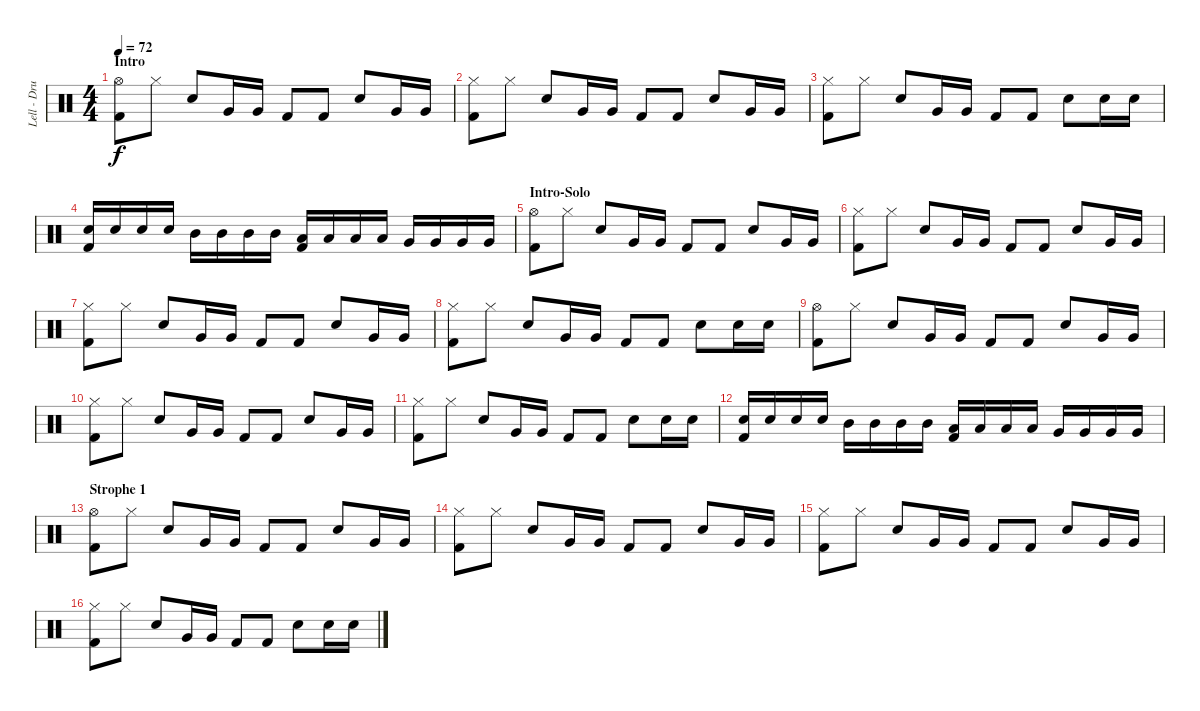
\track ("Lell - Drums" "Lell - Dru") {instrument percussion}
\staff {score}
\articulation defaults
\ts (4 4)
\section ("" "Intro")
\tempo 72
\clef neutral
\ks c
("Hi-Hat (open)" "Kick (hit) 2").8{dy f} "Hi-Hat (closed)".8 "Snare (hit) 2".8 "Very Low Tom (hit)".16 "Very Low Tom (hit)".16 "Kick (hit) 2".8 "Kick (hit) 2".8 "Snare (hit) 2".8 "Very Low Tom (hit)".16 "Very Low Tom (hit)".16 |
("Hi-Hat (closed)" "Kick (hit) 2").8 "Hi-Hat (closed)".8 "Snare (hit) 2".8 "Very Low Tom (hit)".16 "Very Low Tom (hit)".16 "Kick (hit) 2".8 "Kick (hit) 2".8 "Snare (hit) 2".8 "Very Low Tom (hit)".16 "Very Low Tom (hit)".16 |
("Hi-Hat (closed)" "Kick (hit) 2").8 "Hi-Hat (closed)".8 "Snare (hit) 2".8 "Very Low Tom (hit)".16 "Very Low Tom (hit)".16 "Kick (hit) 2".8 "Kick (hit) 2".8 "Snare (hit) 2".8 "Snare (hit) 2".16 "Snare (hit) 2".16 |
("Snare (hit) 2" "Kick (hit) 2").16 "Snare (hit) 2".16 "Snare (hit) 2".16 "Snare (hit) 2".16 "Mid Tom (hit)".16 "Mid Tom (hit)".16 "Mid Tom (hit)".16 "Mid Tom (hit)".16 ("Low Tom (hit)" "Kick (hit) 2").16 "Low Tom (hit)".16 "Low Tom (hit)".16 "Low Tom (hit)".16 "Very Low Tom (hit)".16 "Very Low Tom (hit)".16 "Very Low Tom (hit)".16 "Very Low Tom (hit)".16 |
\section ("" "Intro-Solo")
("Hi-Hat (open)" "Kick (hit) 2").8 "Hi-Hat (closed)".8 "Snare (hit) 2".8 "Very Low Tom (hit)".16 "Very Low Tom (hit)".16 "Kick (hit) 2".8 "Kick (hit) 2".8 "Snare (hit) 2".8 "Very Low Tom (hit)".16 "Very Low Tom (hit)".16 |
("Hi-Hat (closed)" "Kick (hit) 2").8 "Hi-Hat (closed)".8 "Snare (hit) 2".8 "Very Low Tom (hit)".16 "Very Low Tom (hit)".16 "Kick (hit) 2".8 "Kick (hit) 2".8 "Snare (hit) 2".8 "Very Low Tom (hit)".16 "Very Low Tom (hit)".16 |
("Hi-Hat (closed)" "Kick (hit) 2").8 "Hi-Hat (closed)".8 "Snare (hit) 2".8 "Very Low Tom (hit)".16 "Very Low Tom (hit)".16 "Kick (hit) 2".8 "Kick (hit) 2".8 "Snare (hit) 2".8 "Very Low Tom (hit)".16 "Very Low Tom (hit)".16 |
("Hi-Hat (closed)" "Kick (hit) 2").8 "Hi-Hat (closed)".8 "Snare (hit) 2".8 "Very Low Tom (hit)".16 "Very Low Tom (hit)".16 "Kick (hit) 2".8 "Kick (hit) 2".8 "Snare (hit) 2".8 "Snare (hit) 2".16 "Snare (hit) 2".16 |
("Hi-Hat (open)" "Kick (hit) 2").8 "Hi-Hat (closed)".8 "Snare (hit) 2".8 "Very Low Tom (hit)".16 "Very Low Tom (hit)".16 "Kick (hit) 2".8 "Kick (hit) 2".8 "Snare (hit) 2".8 "Very Low Tom (hit)".16 "Very Low Tom (hit)".16 |
("Hi-Hat (closed)" "Kick (hit) 2").8 "Hi-Hat (closed)".8 "Snare (hit) 2".8 "Very Low Tom (hit)".16 "Very Low Tom (hit)".16 "Kick (hit) 2".8 "Kick (hit) 2".8 "Snare (hit) 2".8 "Very Low Tom (hit)".16 "Very Low Tom (hit)".16 |
("Hi-Hat (closed)" "Kick (hit) 2").8 "Hi-Hat (closed)".8 "Snare (hit) 2".8 "Very Low Tom (hit)".16 "Very Low Tom (hit)".16 "Kick (hit) 2".8 "Kick (hit) 2".8 "Snare (hit) 2".8 "Snare (hit) 2".16 "Snare (hit) 2".16 |
("Snare (hit) 2" "Kick (hit) 2").16 "Snare (hit) 2".16 "Snare (hit) 2".16 "Snare (hit) 2".16 "Mid Tom (hit)".16 "Mid Tom (hit)".16 "Mid Tom (hit)".16 "Mid Tom (hit)".16 ("Low Tom (hit)" "Kick (hit) 2").16 "Low Tom (hit)".16 "Low Tom (hit)".16 "Low Tom (hit)".16 "Very Low Tom (hit)".16 "Very Low Tom (hit)".16 "Very Low Tom (hit)".16 "Very Low Tom (hit)".16 |
\section ("" "Strophe 1")
("Hi-Hat (open)" "Kick (hit) 2").8 "Hi-Hat (closed)".8 "Snare (hit) 2".8 "Very Low Tom (hit)".16 "Very Low Tom (hit)".16 "Kick (hit) 2".8 "Kick (hit) 2".8 "Snare (hit) 2".8 "Very Low Tom (hit)".16 "Very Low Tom (hit)".16 |
("Hi-Hat (closed)" "Kick (hit) 2").8 "Hi-Hat (closed)".8 "Snare (hit) 2".8 "Very Low Tom (hit)".16 "Very Low Tom (hit)".16 "Kick (hit) 2".8 "Kick (hit) 2".8 "Snare (hit) 2".8 "Very Low Tom (hit)".16 "Very Low Tom (hit)".16 |
("Hi-Hat (closed)" "Kick (hit) 2").8 "Hi-Hat (closed)".8 "Snare (hit) 2".8 "Very Low Tom (hit)".16 "Very Low Tom (hit)".16 "Kick (hit) 2".8 "Kick (hit) 2".8 "Snare (hit) 2".8 "Very Low Tom (hit)".16 "Very Low Tom (hit)".16 |
("Hi-Hat (closed)" "Kick (hit) 2").8 "Hi-Hat (closed)".8 "Snare (hit) 2".8 "Very Low Tom (hit)".16 "Very Low Tom (hit)".16 "Kick (hit) 2".8 "Kick (hit) 2".8 "Snare (hit) 2".8 "Snare (hit) 2".16 "Snare (hit) 2".16
